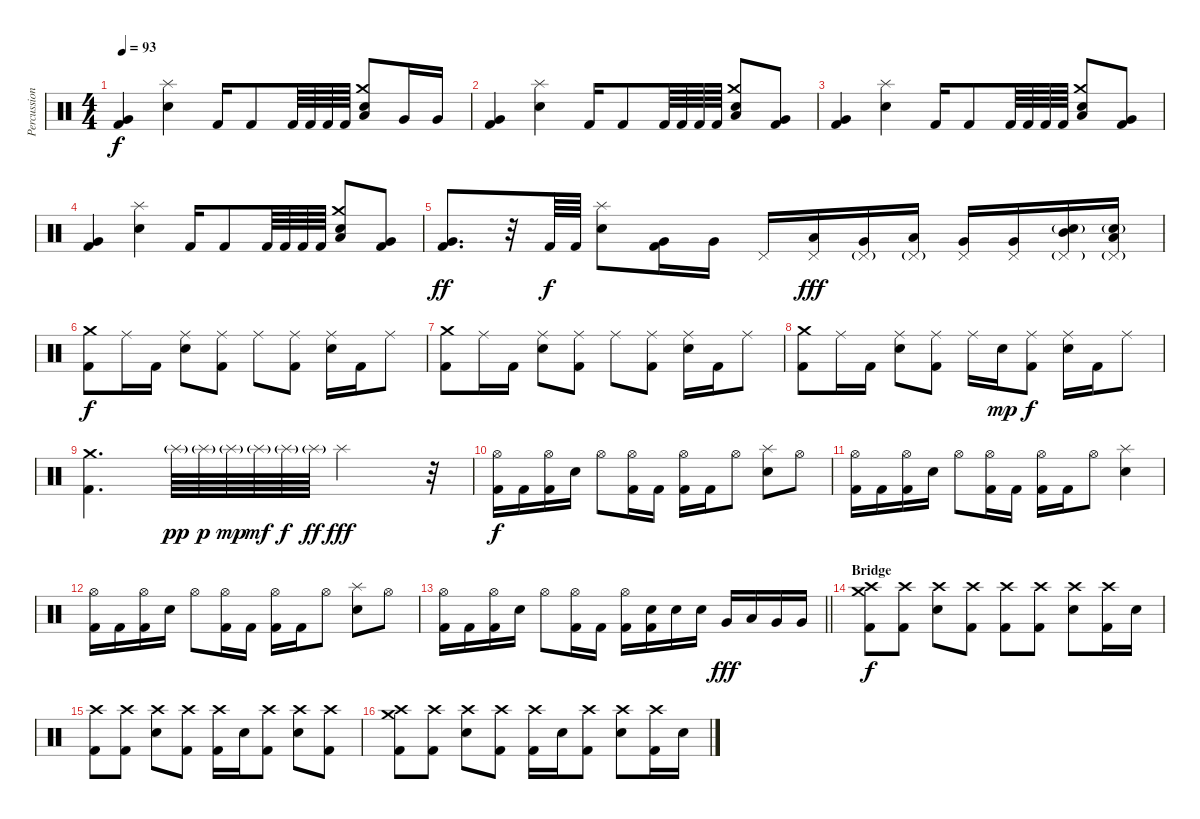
\track ("Percussion" "Percussion") {instrument percussion}
\staff {score}
\articulation defaults
\ts (4 4)
\tempo 93
\clef neutral
\ks c
("Very Low Tom (hit)" "Kick (hit) 2").4{dy f} ("Splash (hit)" "Snare (hit) 2").4 "Kick (hit) 2".16 "Kick (hit) 2".8 "Kick (hit) 2".64 "Kick (hit) 2".64 "Kick (hit) 2".64 "Kick (hit) 2".64 ("Crash medium (hit)" "Snare (hit) 2" "Low Tom (hit)").8 "Very Low Tom (hit)".16 "Very Low Tom (hit)".16 |
("Very Low Tom (hit)" "Kick (hit) 2").4 ("Splash (hit)" "Snare (hit) 2").4 "Kick (hit) 2".16 "Kick (hit) 2".8 "Kick (hit) 2".64 "Kick (hit) 2".64 "Kick (hit) 2".64 "Kick (hit) 2".64 ("Crash medium (hit)" "Snare (hit) 2" "Low Tom (hit)").8 ("Very Low Tom (hit)" "Kick (hit) 2").8 |
("Very Low Tom (hit)" "Kick (hit) 2").4 ("Splash (hit)" "Snare (hit) 2").4 "Kick (hit) 2".16 "Kick (hit) 2".8 "Kick (hit) 2".64 "Kick (hit) 2".64 "Kick (hit) 2".64 "Kick (hit) 2".64 ("Crash medium (hit)" "Snare (hit) 2" "Low Tom (hit)").8 ("Very Low Tom (hit)" "Kick (hit) 2").8 |
("Very Low Tom (hit)" "Kick (hit) 2").4 ("Splash (hit)" "Snare (hit) 2").4 "Kick (hit) 2".16 "Kick (hit) 2".8 "Kick (hit) 2".64 "Kick (hit) 2".64 "Kick (hit) 2".64 "Kick (hit) 2".64 ("Crash medium (hit)" "Snare (hit) 2" "Low Tom (hit)").8 ("Very Low Tom (hit)" "Kick (hit) 2").8 |
("Very Low Tom (hit)" "Kick (hit) 2").8{d dy ff} r.32 "Kick (hit) 2".64{dy f} "Kick (hit) 2".64 ("Splash (hit)" "Snare (hit) 2").8 ("Very Low Tom (hit)" "Kick (hit) 2").16 "Very Low Tom (hit)".16 "Pedal Hi-Hat (hit)".16 ("Pedal Hi-Hat (hit)" "Low Tom (hit)").16{dy fff} ("Pedal Hi-Hat (hit)"{g} "Very Low Tom (hit)").16 ("Pedal Hi-Hat (hit)"{g} "Low Tom (hit)").16 ("Pedal Hi-Hat (hit)" "Very Low Tom (hit)").16 ("Pedal Hi-Hat (hit)" "Very Low Tom (hit)").16 ("Pedal Hi-Hat (hit)"{g} "Snare (hit) 2"{g} "Mid Tom (hit)").16 ("Pedal Hi-Hat (hit)"{g} "Snare (hit) 2"{g} "Low Tom (hit)").16 |
("Crash medium (hit)" "Kick (hit) 2").8{dy f} "Ride (middle)".16 "Kick (hit) 2".16 ("Ride (middle)" "Snare (hit) 2").8 ("Ride (middle)" "Kick (hit) 2").8 "Ride (middle)".8 ("Ride (middle)" "Kick (hit) 2").8 ("Ride (middle)" "Snare (hit) 2").16 "Kick (hit) 2".16 "Ride (middle)".8 |
("Crash medium (hit)" "Kick (hit) 2").8 "Ride (middle)".16 "Kick (hit) 2".16 ("Ride (middle)" "Snare (hit) 2").8 ("Ride (middle)" "Kick (hit) 2").8 "Ride (middle)".8 ("Ride (middle)" "Kick (hit) 2").8 ("Ride (middle)" "Snare (hit) 2").16 "Kick (hit) 2".16 "Ride (middle)".8 |
("Crash medium (hit)" "Kick (hit) 2").8 "Ride (middle)".16 "Kick (hit) 2".16 ("Ride (middle)" "Snare (hit) 2").8 ("Ride (middle)" "Kick (hit) 2").8 "Ride (middle)".16 "Snare (hit) 2".16{dy mp} ("Ride (middle)" "Kick (hit) 2").8{dy f} ("Ride (middle)" "Snare (hit) 2").16 "Kick (hit) 2".16 "Ride (middle)".8 |
("Crash medium (hit)" "Kick (hit) 2").4{d} "Splash (hit)"{g}.64{dy pp} "Splash (hit)"{g}.64{dy p} "Splash (hit)"{g}.64{dy mp} "Splash (hit)"{g}.64{dy mf} "Splash (hit)"{g}.64{dy f} "Splash (hit)"{g}.64{dy ff} "Splash (hit)".2{dy fff} r.32 |
("Hi-Hat (open)" "Kick (hit) 2").16{dy f} "Kick (hit) 2".16 ("Hi-Hat (open)" "Kick (hit) 2").16 "Snare (hit) 2".16 "Hi-Hat (open)".8 ("Hi-Hat (open)" "Kick (hit) 2").16 "Kick (hit) 2".16 ("Hi-Hat (open)" "Kick (hit) 2").16 "Kick (hit) 2".16 "Hi-Hat (open)".8 ("Splash (hit)" "Snare (hit) 2").8 "Hi-Hat (open)".8 |
("Hi-Hat (open)" "Kick (hit) 2").16 "Kick (hit) 2".16 ("Hi-Hat (open)" "Kick (hit) 2").16 "Snare (hit) 2".16 "Hi-Hat (open)".8 ("Hi-Hat (open)" "Kick (hit) 2").16 "Kick (hit) 2".16 ("Hi-Hat (open)" "Kick (hit) 2").16 "Kick (hit) 2".16 "Hi-Hat (open)".8 ("Splash (hit)" "Snare (hit) 2").4 |
("Hi-Hat (open)" "Kick (hit) 2").16 "Kick (hit) 2".16 ("Hi-Hat (open)" "Kick (hit) 2").16 "Snare (hit) 2".16 "Hi-Hat (open)".8 ("Hi-Hat (open)" "Kick (hit) 2").16 "Kick (hit) 2".16 ("Hi-Hat (open)" "Kick (hit) 2").16 "Kick (hit) 2".16 "Hi-Hat (open)".8 ("Splash (hit)" "Snare (hit) 2").8 "Hi-Hat (open)".8 |
\barLineRight lightlight
("Hi-Hat (open)" "Kick (hit) 2").16 "Kick (hit) 2".16 ("Hi-Hat (open)" "Kick (hit) 2").16 "Snare (hit) 2".16 "Hi-Hat (open)".8 ("Hi-Hat (open)" "Kick (hit) 2").16 "Kick (hit) 2".16 ("Hi-Hat (open)" "Kick (hit) 2").16 ("Snare (hit) 2" "Kick (hit) 2").16 "Snare (hit) 2".16 "Snare (hit) 2".16 "Very Low Tom (hit)".16{dy fff} "Low Tom (hit)".16 "Very Low Tom (hit)".16 "Very Low Tom (hit)".16 |
\section ("" "Bridge")
("Crash medium (hit)" "Crash high (hit)" "Kick (hit) 2").8{dy f} ("Crash high (hit)" "Kick (hit) 2").8 ("Crash high (hit)" "Snare (hit) 2").8 ("Crash high (hit)" "Kick (hit) 2").8 ("Crash high (hit)" "Kick (hit) 2").8 ("Crash high (hit)" "Kick (hit) 2").8 ("Crash high (hit)" "Snare (hit) 2").8 ("Crash high (hit)" "Kick (hit) 2").16 "Snare (hit) 2".16 |
("Crash high (hit)" "Kick (hit) 2").8 ("Crash high (hit)" "Kick (hit) 2").8 ("Crash high (hit)" "Snare (hit) 2").8 ("Crash high (hit)" "Kick (hit) 2").8 ("Crash high (hit)" "Kick (hit) 2").16 "Snare (hit) 2".16 ("Crash high (hit)" "Kick (hit) 2").8 ("Crash high (hit)" "Snare (hit) 2").8 ("Crash high (hit)" "Kick (hit) 2").8 |
("Crash medium (hit)" "Crash high (hit)" "Kick (hit) 2").8 ("Crash high (hit)" "Kick (hit) 2").8 ("Crash high (hit)" "Snare (hit) 2").8 ("Crash high (hit)" "Kick (hit) 2").8 ("Crash high (hit)" "Kick (hit) 2").16 "Snare (hit) 2".16 ("Crash high (hit)" "Kick (hit) 2").8 ("Crash high (hit)" "Snare (hit) 2").8 ("Crash high (hit)" "Kick (hit) 2").16 "Snare (hit) 2".16
